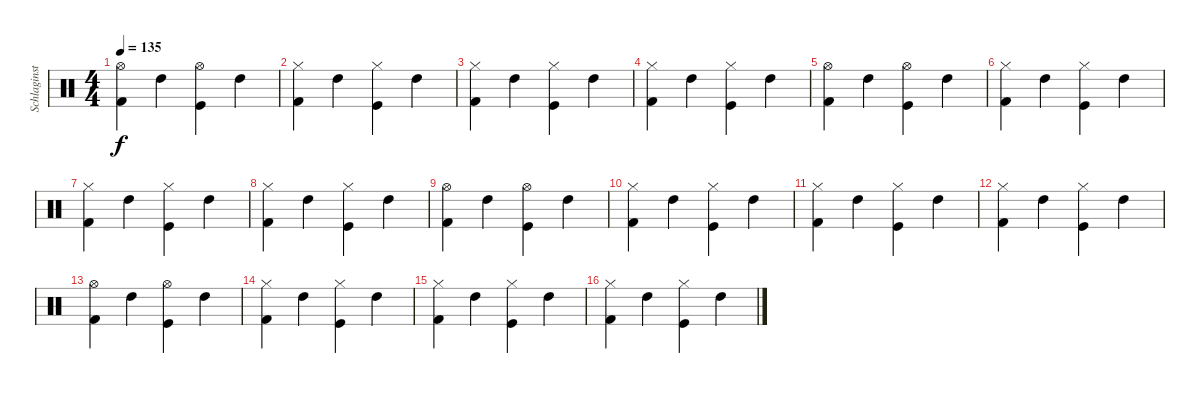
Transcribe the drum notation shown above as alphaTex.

\track ("Schlaginstrumente - Auswahl" "Schlaginst") {instrument percussion}
\staff {score}
\articulation defaults
\ts (4 4)
\tempo 135
\clef neutral
\ks c
("Kick (hit) 2" "Hi-Hat (open)").4{dy f} "High Tom (hit)".4 ("Kick (hit)" "Hi-Hat (open)").4 "High Tom (hit)".4 |
("Kick (hit) 2" "Hi-Hat (closed)").4 "High Tom (hit)".4 ("Kick (hit)" "Hi-Hat (closed)").4 "High Tom (hit)".4 |
("Kick (hit) 2" "Hi-Hat (closed)").4 "High Tom (hit)".4 ("Kick (hit)" "Hi-Hat (closed)").4 "High Tom (hit)".4 |
("Kick (hit) 2" "Hi-Hat (closed)").4 "High Tom (hit)".4 ("Kick (hit)" "Hi-Hat (closed)").4 "High Tom (hit)".4 |
("Kick (hit) 2" "Hi-Hat (open)").4 "High Tom (hit)".4 ("Kick (hit)" "Hi-Hat (open)").4 "High Tom (hit)".4 |
("Kick (hit) 2" "Hi-Hat (closed)").4 "High Tom (hit)".4 ("Kick (hit)" "Hi-Hat (closed)").4 "High Tom (hit)".4 |
("Kick (hit) 2" "Hi-Hat (closed)").4 "High Tom (hit)".4 ("Kick (hit)" "Hi-Hat (closed)").4 "High Tom (hit)".4 |
("Kick (hit) 2" "Hi-Hat (closed)").4 "High Tom (hit)".4 ("Kick (hit)" "Hi-Hat (closed)").4 "High Tom (hit)".4 |
("Kick (hit) 2" "Hi-Hat (open)").4 "High Tom (hit)".4 ("Kick (hit)" "Hi-Hat (open)").4 "High Tom (hit)".4 |
("Kick (hit) 2" "Hi-Hat (closed)").4 "High Tom (hit)".4 ("Kick (hit)" "Hi-Hat (closed)").4 "High Tom (hit)".4 |
("Kick (hit) 2" "Hi-Hat (closed)").4 "High Tom (hit)".4 ("Kick (hit)" "Hi-Hat (closed)").4 "High Tom (hit)".4 |
("Kick (hit) 2" "Hi-Hat (closed)").4 "High Tom (hit)".4 ("Kick (hit)" "Hi-Hat (closed)").4 "High Tom (hit)".4 |
("Kick (hit) 2" "Hi-Hat (open)").4 "High Tom (hit)".4 ("Kick (hit)" "Hi-Hat (open)").4 "High Tom (hit)".4 |
("Kick (hit) 2" "Hi-Hat (closed)").4 "High Tom (hit)".4 ("Kick (hit)" "Hi-Hat (closed)").4 "High Tom (hit)".4 |
("Kick (hit) 2" "Hi-Hat (closed)").4 "High Tom (hit)".4 ("Kick (hit)" "Hi-Hat (closed)").4 "High Tom (hit)".4 |
("Kick (hit) 2" "Hi-Hat (closed)").4 "High Tom (hit)".4 ("Kick (hit)" "Hi-Hat (closed)").4 "High Tom (hit)".4
